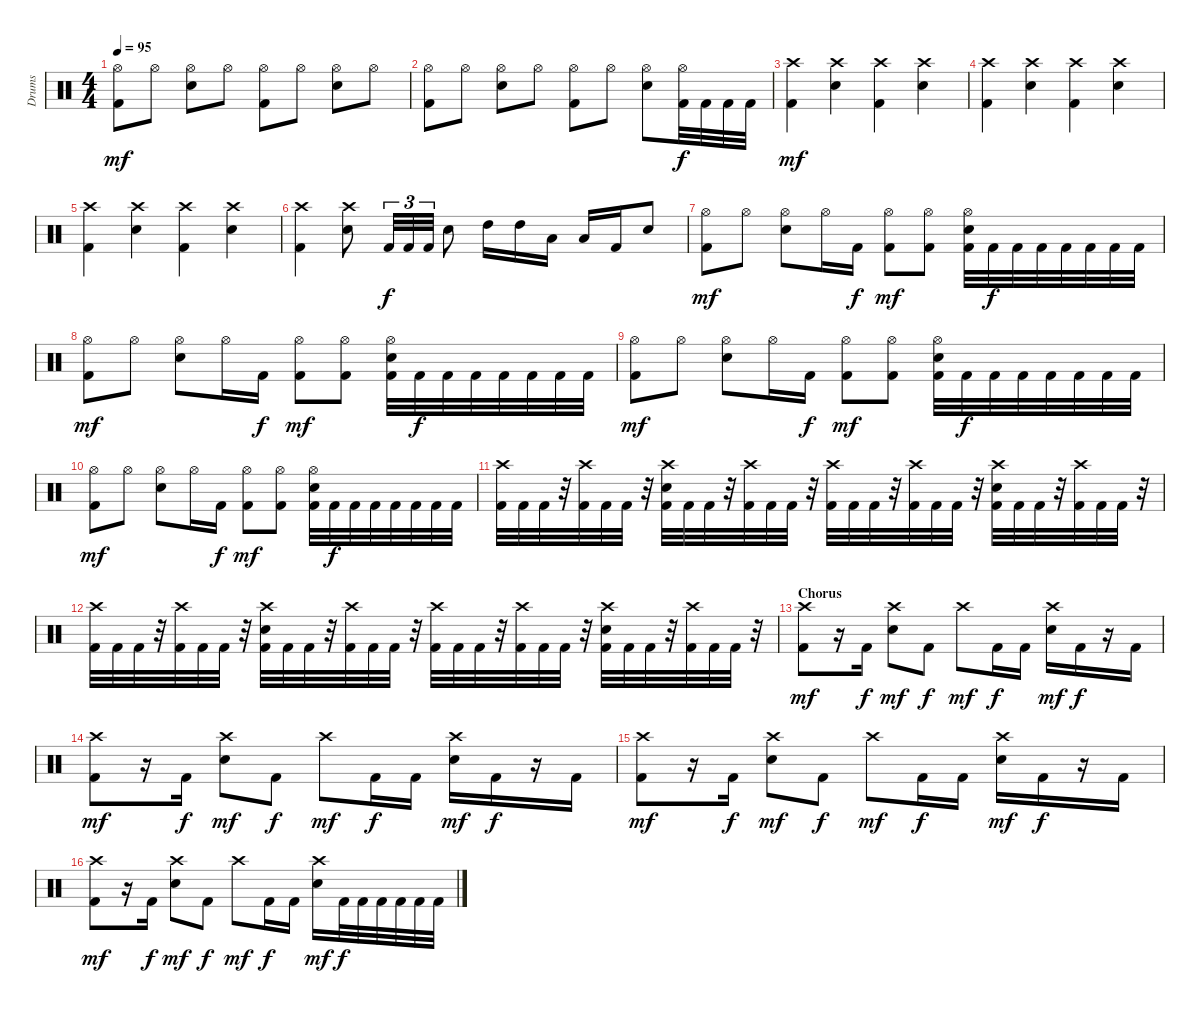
\track ("Drums" "Drums") {instrument percussion}
\staff {score}
\articulation defaults
\ts (4 4)
\tempo 95
\clef neutral
\ks c
("Hi-Hat (open)" "Kick (hit) 2").8{dy mf} "Hi-Hat (open)".8 ("Hi-Hat (open)" "Electric Snare (hit)").8 "Hi-Hat (open)".8 ("Hi-Hat (open)" "Kick (hit) 2").8 "Hi-Hat (open)".8 ("Hi-Hat (open)" "Electric Snare (hit)").8 "Hi-Hat (open)".8 |
("Hi-Hat (open)" "Kick (hit) 2").8 "Hi-Hat (open)".8 ("Hi-Hat (open)" "Electric Snare (hit)").8 "Hi-Hat (open)".8 ("Hi-Hat (open)" "Kick (hit) 2").8 "Hi-Hat (open)".8 ("Hi-Hat (open)" "Electric Snare (hit)").8 ("Hi-Hat (open)" "Kick (hit) 2").32{dy f} "Kick (hit) 2".32 "Kick (hit) 2".32 "Kick (hit) 2".32 |
("Crash high (hit)" "Kick (hit) 2").4{dy mf} ("Crash high (hit)" "Electric Snare (hit)").4 ("Crash high (hit)" "Kick (hit) 2").4 ("Crash high (hit)" "Electric Snare (hit)").4 |
("Crash high (hit)" "Kick (hit) 2").4 ("Crash high (hit)" "Electric Snare (hit)").4 ("Crash high (hit)" "Kick (hit) 2").4 ("Crash high (hit)" "Electric Snare (hit)").4 |
("Crash high (hit)" "Kick (hit) 2").4 ("Crash high (hit)" "Electric Snare (hit)").4 ("Crash high (hit)" "Kick (hit) 2").4 ("Crash high (hit)" "Electric Snare (hit)").4 |
("Crash high (hit)" "Kick (hit) 2").4 ("Crash high (hit)" "Electric Snare (hit)").8 "Kick (hit) 2".32{tu (3 2) dy f} "Kick (hit) 2".32{tu (3 2)} "Kick (hit) 2".32{tu (3 2)} "Electric Snare (hit)".8 "High Tom (hit)".16 "High Tom (hit)".16 "Low Tom (hit)".16 "Low Tom (hit)".16 "Kick (hit) 2".16 "Electric Snare (hit)".8 |
("Hi-Hat (open)" "Kick (hit) 2").8{dy mf} "Hi-Hat (open)".8 ("Hi-Hat (open)" "Electric Snare (hit)").8 "Hi-Hat (open)".16 "Kick (hit) 2".16{dy f} ("Hi-Hat (open)" "Kick (hit) 2").8{dy mf} ("Hi-Hat (open)" "Kick (hit) 2").8 ("Hi-Hat (open)" "Electric Snare (hit)" "Kick (hit) 2").32 "Kick (hit) 2".32{dy f} "Kick (hit) 2".32 "Kick (hit) 2".32 "Kick (hit) 2".32 "Kick (hit) 2".32 "Kick (hit) 2".32 "Kick (hit) 2".32 |
("Hi-Hat (open)" "Kick (hit) 2").8{dy mf} "Hi-Hat (open)".8 ("Hi-Hat (open)" "Electric Snare (hit)").8 "Hi-Hat (open)".16 "Kick (hit) 2".16{dy f} ("Hi-Hat (open)" "Kick (hit) 2").8{dy mf} ("Hi-Hat (open)" "Kick (hit) 2").8 ("Hi-Hat (open)" "Electric Snare (hit)" "Kick (hit) 2").32 "Kick (hit) 2".32{dy f} "Kick (hit) 2".32 "Kick (hit) 2".32 "Kick (hit) 2".32 "Kick (hit) 2".32 "Kick (hit) 2".32 "Kick (hit) 2".32 |
("Hi-Hat (open)" "Kick (hit) 2").8{dy mf} "Hi-Hat (open)".8 ("Hi-Hat (open)" "Electric Snare (hit)").8 "Hi-Hat (open)".16 "Kick (hit) 2".16{dy f} ("Hi-Hat (open)" "Kick (hit) 2").8{dy mf} ("Hi-Hat (open)" "Kick (hit) 2").8 ("Hi-Hat (open)" "Electric Snare (hit)" "Kick (hit) 2").32 "Kick (hit) 2".32{dy f} "Kick (hit) 2".32 "Kick (hit) 2".32 "Kick (hit) 2".32 "Kick (hit) 2".32 "Kick (hit) 2".32 "Kick (hit) 2".32 |
("Hi-Hat (open)" "Kick (hit) 2").8{dy mf} "Hi-Hat (open)".8 ("Hi-Hat (open)" "Electric Snare (hit)").8 "Hi-Hat (open)".16 "Kick (hit) 2".16{dy f} ("Hi-Hat (open)" "Kick (hit) 2").8{dy mf} ("Hi-Hat (open)" "Kick (hit) 2").8 ("Hi-Hat (open)" "Electric Snare (hit)" "Kick (hit) 2").32 "Kick (hit) 2".32{dy f} "Kick (hit) 2".32 "Kick (hit) 2".32 "Kick (hit) 2".32 "Kick (hit) 2".32 "Kick (hit) 2".32 "Kick (hit) 2".32 |
("Crash high (hit)" "Kick (hit) 2").32 "Kick (hit) 2".32 "Kick (hit) 2".32 r.32 ("Crash high (hit)" "Kick (hit) 2").32 "Kick (hit) 2".32 "Kick (hit) 2".32 r.32 ("Crash high (hit)" "Electric Snare (hit)" "Kick (hit) 2").32 "Kick (hit) 2".32 "Kick (hit) 2".32 r.32 ("Crash high (hit)" "Kick (hit) 2").32 "Kick (hit) 2".32 "Kick (hit) 2".32 r.32 ("Crash high (hit)" "Kick (hit) 2").32 "Kick (hit) 2".32 "Kick (hit) 2".32 r.32 ("Crash high (hit)" "Kick (hit) 2").32 "Kick (hit) 2".32 "Kick (hit) 2".32 r.32 ("Crash high (hit)" "Electric Snare (hit)" "Kick (hit) 2").32 "Kick (hit) 2".32 "Kick (hit) 2".32 r.32 ("Crash high (hit)" "Kick (hit) 2").32 "Kick (hit) 2".32 "Kick (hit) 2".32 r.32 |
("Crash high (hit)" "Kick (hit) 2").32 "Kick (hit) 2".32 "Kick (hit) 2".32 r.32 ("Crash high (hit)" "Kick (hit) 2").32 "Kick (hit) 2".32 "Kick (hit) 2".32 r.32 ("Crash high (hit)" "Electric Snare (hit)" "Kick (hit) 2").32 "Kick (hit) 2".32 "Kick (hit) 2".32 r.32 ("Crash high (hit)" "Kick (hit) 2").32 "Kick (hit) 2".32 "Kick (hit) 2".32 r.32 ("Crash high (hit)" "Kick (hit) 2").32 "Kick (hit) 2".32 "Kick (hit) 2".32 r.32 ("Crash high (hit)" "Kick (hit) 2").32 "Kick (hit) 2".32 "Kick (hit) 2".32 r.32 ("Crash high (hit)" "Electric Snare (hit)" "Kick (hit) 2").32 "Kick (hit) 2".32 "Kick (hit) 2".32 r.32 ("Crash high (hit)" "Kick (hit) 2").32 "Kick (hit) 2".32 "Kick (hit) 2".32 r.32 |
\section ("" "Chorus")
("Crash high (hit)" "Kick (hit) 2").8{dy mf} r.16 "Kick (hit) 2".16{dy f} ("Crash high (hit)" "Electric Snare (hit)").8{dy mf} "Kick (hit) 2".8{dy f} "Crash high (hit)".8{dy mf} "Kick (hit) 2".16{dy f} "Kick (hit) 2".16 ("Crash high (hit)" "Electric Snare (hit)").16{dy mf} "Kick (hit) 2".16{dy f} r.16 "Kick (hit) 2".16 |
("Crash high (hit)" "Kick (hit) 2").8{dy mf} r.16 "Kick (hit) 2".16{dy f} ("Crash high (hit)" "Electric Snare (hit)").8{dy mf} "Kick (hit) 2".8{dy f} "Crash high (hit)".8{dy mf} "Kick (hit) 2".16{dy f} "Kick (hit) 2".16 ("Crash high (hit)" "Electric Snare (hit)").16{dy mf} "Kick (hit) 2".16{dy f} r.16 "Kick (hit) 2".16 |
("Crash high (hit)" "Kick (hit) 2").8{dy mf} r.16 "Kick (hit) 2".16{dy f} ("Crash high (hit)" "Electric Snare (hit)").8{dy mf} "Kick (hit) 2".8{dy f} "Crash high (hit)".8{dy mf} "Kick (hit) 2".16{dy f} "Kick (hit) 2".16 ("Crash high (hit)" "Electric Snare (hit)").16{dy mf} "Kick (hit) 2".16{dy f} r.16 "Kick (hit) 2".16 |
("Crash high (hit)" "Kick (hit) 2").8{dy mf} r.16 "Kick (hit) 2".16{dy f} ("Crash high (hit)" "Electric Snare (hit)").8{dy mf} "Kick (hit) 2".8{dy f} "Crash high (hit)".8{dy mf} "Kick (hit) 2".16{dy f} "Kick (hit) 2".16 ("Crash high (hit)" "Electric Snare (hit)").16{dy mf} "Kick (hit) 2".32{dy f} "Kick (hit) 2".32 "Kick (hit) 2".32 "Kick (hit) 2".32 "Kick (hit) 2".32 "Kick (hit) 2".32
